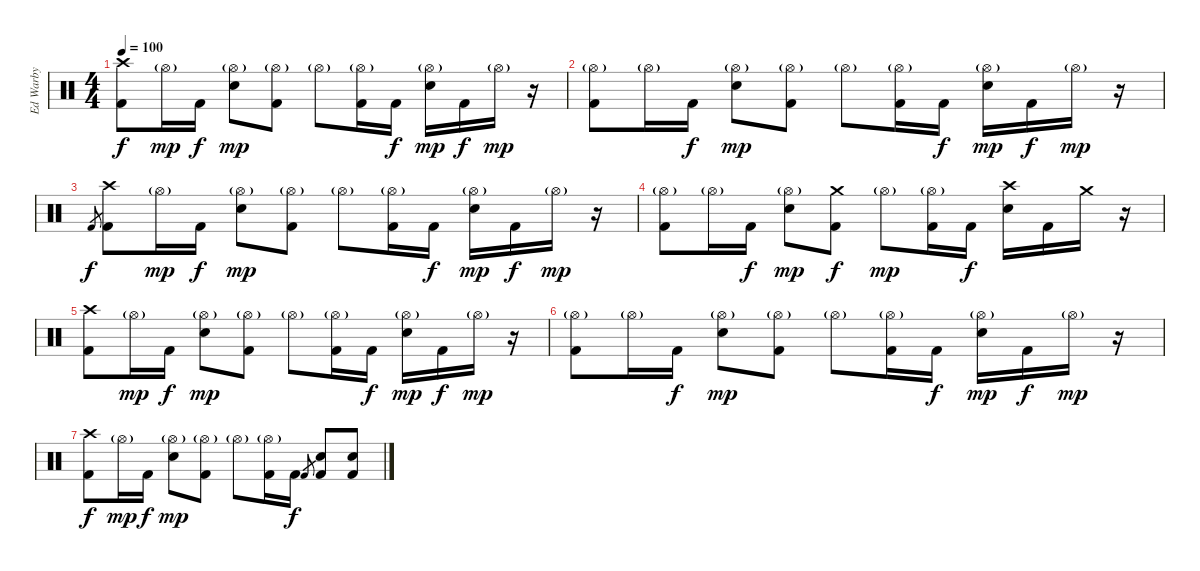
\track ("Ed Warby" "Ed Warby") {instrument percussion}
\staff {score}
\articulation defaults
\ts (4 4)
\tempo 100
\clef neutral
\ks c
("Crash high (hit)" "Kick (hit) 2").8{dy f} "Hi-Hat (open)"{g}.16{dy mp} "Kick (hit) 2".16{dy f} ("Hi-Hat (open)"{g} "Electric Snare (hit)").8{dy mp} ("Hi-Hat (open)"{g} "Kick (hit) 2").8 "Hi-Hat (open)"{g}.8 ("Hi-Hat (open)"{g} "Kick (hit) 2").16 "Kick (hit) 2".16{dy f} ("Hi-Hat (open)"{g} "Electric Snare (hit)").16{dy mp} "Kick (hit) 2".16{dy f} "Hi-Hat (open)"{g}.16{dy mp} r.16 |
("Hi-Hat (open)"{g} "Kick (hit) 2").8 "Hi-Hat (open)"{g}.16 "Kick (hit) 2".16{dy f} ("Hi-Hat (open)"{g} "Electric Snare (hit)").8{dy mp} ("Hi-Hat (open)"{g} "Kick (hit) 2").8 "Hi-Hat (open)"{g}.8 ("Hi-Hat (open)"{g} "Kick (hit) 2").16 "Kick (hit) 2".16{dy f} ("Hi-Hat (open)"{g} "Electric Snare (hit)").16{dy mp} "Kick (hit) 2".16{dy f} "Hi-Hat (open)"{g}.16{dy mp} r.16 |
"Kick (hit) 2".8{gr dy f} ("Crash high (hit)" "Kick (hit) 2").8 "Hi-Hat (open)"{g}.16{dy mp} "Kick (hit) 2".16{dy f} ("Hi-Hat (open)"{g} "Electric Snare (hit)").8{dy mp} ("Hi-Hat (open)"{g} "Kick (hit) 2").8 "Hi-Hat (open)"{g}.8 ("Hi-Hat (open)"{g} "Kick (hit) 2").16 "Kick (hit) 2".16{dy f} ("Hi-Hat (open)"{g} "Electric Snare (hit)").16{dy mp} "Kick (hit) 2".16{dy f} "Hi-Hat (open)"{g}.16{dy mp} r.16 |
("Hi-Hat (open)"{g} "Kick (hit) 2").8 "Hi-Hat (open)"{g}.16 "Kick (hit) 2".16{dy f} ("Hi-Hat (open)"{g} "Electric Snare (hit)").8{dy mp} ("Crash medium (hit)" "Kick (hit) 2").8{dy f} "Hi-Hat (open)"{g}.8{dy mp} ("Hi-Hat (open)"{g} "Kick (hit) 2").16 "Kick (hit) 2".16{dy f} ("Crash high (hit)" "Electric Snare (hit)").16 "Kick (hit) 2".16 "Crash medium (hit)".16 r.16 |
("Crash high (hit)" "Kick (hit) 2").8 "Hi-Hat (open)"{g}.16{dy mp} "Kick (hit) 2".16{dy f} ("Hi-Hat (open)"{g} "Electric Snare (hit)").8{dy mp} ("Hi-Hat (open)"{g} "Kick (hit) 2").8 "Hi-Hat (open)"{g}.8 ("Hi-Hat (open)"{g} "Kick (hit) 2").16 "Kick (hit) 2".16{dy f} ("Hi-Hat (open)"{g} "Electric Snare (hit)").16{dy mp} "Kick (hit) 2".16{dy f} "Hi-Hat (open)"{g}.16{dy mp} r.16 |
("Hi-Hat (open)"{g} "Kick (hit) 2").8 "Hi-Hat (open)"{g}.16 "Kick (hit) 2".16{dy f} ("Hi-Hat (open)"{g} "Electric Snare (hit)").8{dy mp} ("Hi-Hat (open)"{g} "Kick (hit) 2").8 "Hi-Hat (open)"{g}.8 ("Hi-Hat (open)"{g} "Kick (hit) 2").16 "Kick (hit) 2".16{dy f} ("Hi-Hat (open)"{g} "Electric Snare (hit)").16{dy mp} "Kick (hit) 2".16{dy f} "Hi-Hat (open)"{g}.16{dy mp} r.16 |
("Crash high (hit)" "Kick (hit) 2").8{dy f} "Hi-Hat (open)"{g}.16{dy mp} "Kick (hit) 2".16{dy f} ("Hi-Hat (open)"{g} "Electric Snare (hit)").8{dy mp} ("Hi-Hat (open)"{g} "Kick (hit) 2").8 "Hi-Hat (open)"{g}.8 ("Hi-Hat (open)"{g} "Kick (hit) 2").16 "Kick (hit) 2".16{dy f} "Kick (hit) 2".8{gr} ("Electric Snare (hit)" "Kick (hit) 2").8 ("Electric Snare (hit)" "Kick (hit) 2").8
